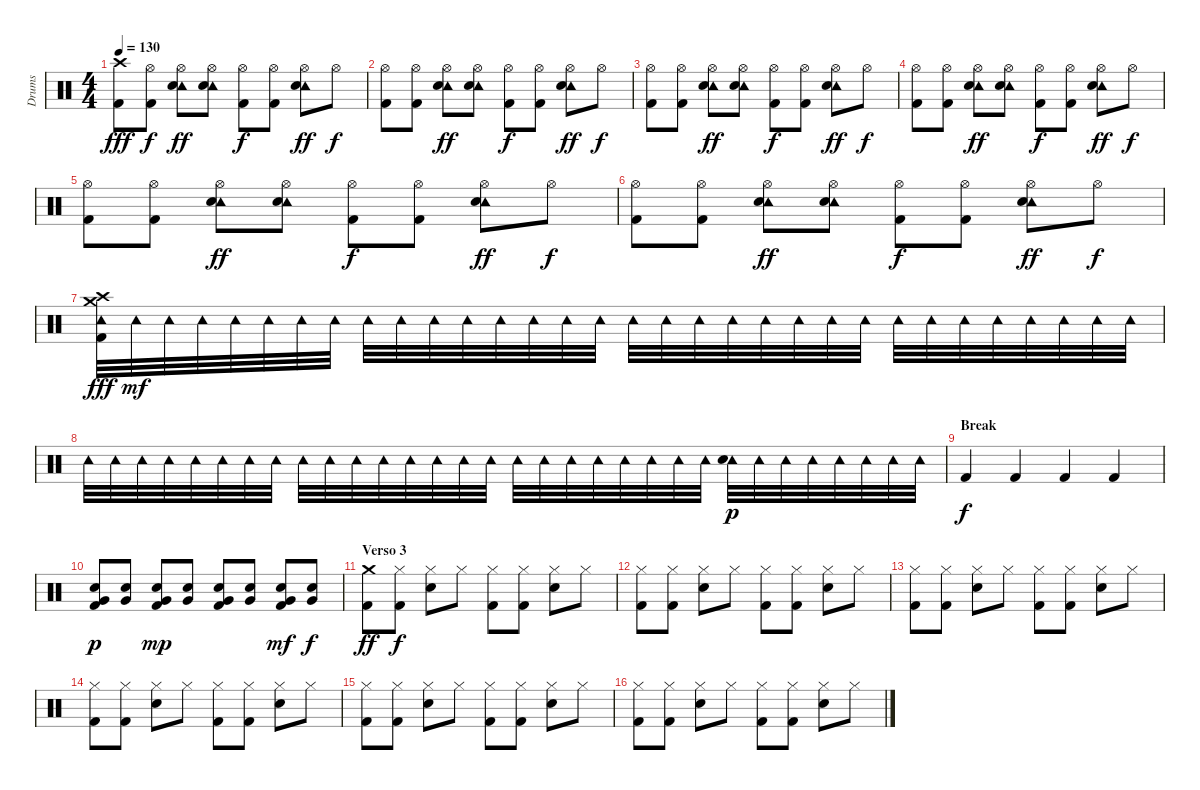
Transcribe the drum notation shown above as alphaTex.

\track ("Drums" "Drums") {instrument percussion}
\staff {score}
\articulation defaults
\ts (4 4)
\tempo 130
\clef neutral
\ks c
("Crash high (hit)" "Kick (hit) 2").8{dy fff} ("Hi-Hat (open)" "Kick (hit) 2").8{dy f} ("Hi-Hat (open)" "Tambourine (hit)" "Snare (hit) 2").8{dy ff} ("Hi-Hat (open)" "Tambourine (hit)" "Snare (hit) 2").8 ("Hi-Hat (open)" "Kick (hit) 2").8{dy f} ("Hi-Hat (open)" "Kick (hit) 2").8 ("Hi-Hat (open)" "Tambourine (hit)" "Snare (hit) 2").8{dy ff} "Hi-Hat (open)".8{dy f} |
("Hi-Hat (open)" "Kick (hit) 2").8 ("Hi-Hat (open)" "Kick (hit) 2").8 ("Hi-Hat (open)" "Tambourine (hit)" "Snare (hit) 2").8{dy ff} ("Hi-Hat (open)" "Tambourine (hit)" "Snare (hit) 2").8 ("Hi-Hat (open)" "Kick (hit) 2").8{dy f} ("Hi-Hat (open)" "Kick (hit) 2").8 ("Hi-Hat (open)" "Tambourine (hit)" "Snare (hit) 2").8{dy ff} "Hi-Hat (open)".8{dy f} |
("Hi-Hat (open)" "Kick (hit) 2").8 ("Hi-Hat (open)" "Kick (hit) 2").8 ("Hi-Hat (open)" "Tambourine (hit)" "Snare (hit) 2").8{dy ff} ("Hi-Hat (open)" "Tambourine (hit)" "Snare (hit) 2").8 ("Hi-Hat (open)" "Kick (hit) 2").8{dy f} ("Hi-Hat (open)" "Kick (hit) 2").8 ("Hi-Hat (open)" "Tambourine (hit)" "Snare (hit) 2").8{dy ff} "Hi-Hat (open)".8{dy f} |
("Hi-Hat (open)" "Kick (hit) 2").8 ("Hi-Hat (open)" "Kick (hit) 2").8 ("Hi-Hat (open)" "Tambourine (hit)" "Snare (hit) 2").8{dy ff} ("Hi-Hat (open)" "Tambourine (hit)" "Snare (hit) 2").8 ("Hi-Hat (open)" "Kick (hit) 2").8{dy f} ("Hi-Hat (open)" "Kick (hit) 2").8 ("Hi-Hat (open)" "Tambourine (hit)" "Snare (hit) 2").8{dy ff} "Hi-Hat (open)".8{dy f} |
("Hi-Hat (open)" "Kick (hit) 2").8 ("Hi-Hat (open)" "Kick (hit) 2").8 ("Hi-Hat (open)" "Tambourine (hit)" "Snare (hit) 2").8{dy ff} ("Hi-Hat (open)" "Tambourine (hit)" "Snare (hit) 2").8 ("Hi-Hat (open)" "Kick (hit) 2").8{dy f} ("Hi-Hat (open)" "Kick (hit) 2").8 ("Hi-Hat (open)" "Tambourine (hit)" "Snare (hit) 2").8{dy ff} "Hi-Hat (open)".8{dy f} |
("Hi-Hat (open)" "Kick (hit) 2").8 ("Hi-Hat (open)" "Kick (hit) 2").8 ("Hi-Hat (open)" "Tambourine (hit)" "Snare (hit) 2").8{dy ff} ("Hi-Hat (open)" "Tambourine (hit)" "Snare (hit) 2").8 ("Hi-Hat (open)" "Kick (hit) 2").8{dy f} ("Hi-Hat (open)" "Kick (hit) 2").8 ("Hi-Hat (open)" "Tambourine (hit)" "Snare (hit) 2").8{dy ff} "Hi-Hat (open)".8{dy f} |
("Crash medium (hit)" "Tambourine (hit)" "Crash high (hit)" "Kick (hit) 2").32{dy fff} "Tambourine (hit)".32{dy mf} "Tambourine (hit)".32 "Tambourine (hit)".32 "Tambourine (hit)".32 "Tambourine (hit)".32 "Tambourine (hit)".32 "Tambourine (hit)".32 "Tambourine (hit)".32{volume 8} "Tambourine (hit)".32 "Tambourine (hit)".32 "Tambourine (hit)".32 "Tambourine (hit)".32 "Tambourine (hit)".32 "Tambourine (hit)".32 "Tambourine (hit)".32 "Tambourine (hit)".32 "Tambourine (hit)".32 "Tambourine (hit)".32 "Tambourine (hit)".32 "Tambourine (hit)".32 "Tambourine (hit)".32 "Tambourine (hit)".32 "Tambourine (hit)".32 "Tambourine (hit)".32 "Tambourine (hit)".32 "Tambourine (hit)".32 "Tambourine (hit)".32 "Tambourine (hit)".32 "Tambourine (hit)".32 "Tambourine (hit)".32 "Tambourine (hit)".32 |
"Tambourine (hit)".32 "Tambourine (hit)".32 "Tambourine (hit)".32 "Tambourine (hit)".32 "Tambourine (hit)".32 "Tambourine (hit)".32 "Tambourine (hit)".32 "Tambourine (hit)".32 "Tambourine (hit)".32 "Tambourine (hit)".32 "Tambourine (hit)".32 "Tambourine (hit)".32 "Tambourine (hit)".32 "Tambourine (hit)".32 "Tambourine (hit)".32 "Tambourine (hit)".32 "Tambourine (hit)".32 "Tambourine (hit)".32 "Tambourine (hit)".32 "Tambourine (hit)".32 "Tambourine (hit)".32 "Tambourine (hit)".32 "Tambourine (hit)".32 "Tambourine (hit)".32 ("Tambourine (hit)" "Snare (hit) 2").32{dy p volume 11} "Tambourine (hit)".32 "Tambourine (hit)".32 "Tambourine (hit)".32 "Tambourine (hit)".32 "Tambourine (hit)".32 "Tambourine (hit)".32 "Tambourine (hit)".32 |
\section ("" "Break")
"Kick (hit) 2".4{dy f} "Kick (hit) 2".4 "Kick (hit) 2".4 "Kick (hit) 2".4 |
("Snare (hit) 2" "Very Low Tom (hit)" "Kick (hit) 2").8{dy p} ("Snare (hit) 2" "Very Low Tom (hit)").8 ("Snare (hit) 2" "Very Low Tom (hit)" "Kick (hit) 2").8{dy mp} ("Snare (hit) 2" "Very Low Tom (hit)").8 ("Snare (hit) 2" "Very Low Tom (hit)" "Kick (hit) 2").8 ("Snare (hit) 2" "Very Low Tom (hit)").8 ("Snare (hit) 2" "Very Low Tom (hit)" "Kick (hit) 2").8{dy mf} ("Snare (hit) 2" "Very Low Tom (hit)").8{dy f} |
\section ("" "Verso 3")
("Crash medium (hit)" "Kick (hit) 2").8{dy ff volume 13} ("Hi-Hat (closed)" "Kick (hit) 2").8{dy f} ("Hi-Hat (closed)" "Snare (hit) 2").8 "Hi-Hat (closed)".8 ("Hi-Hat (closed)" "Kick (hit) 2").8 ("Hi-Hat (closed)" "Kick (hit) 2").8 ("Hi-Hat (closed)" "Snare (hit) 2").8 "Hi-Hat (closed)".8 |
("Hi-Hat (closed)" "Kick (hit) 2").8 ("Hi-Hat (closed)" "Kick (hit) 2").8 ("Hi-Hat (closed)" "Snare (hit) 2").8 "Hi-Hat (closed)".8 ("Hi-Hat (closed)" "Kick (hit) 2").8 ("Hi-Hat (closed)" "Kick (hit) 2").8 ("Hi-Hat (closed)" "Snare (hit) 2").8 "Hi-Hat (closed)".8 |
("Hi-Hat (closed)" "Kick (hit) 2").8 ("Hi-Hat (closed)" "Kick (hit) 2").8 ("Hi-Hat (closed)" "Snare (hit) 2").8 "Hi-Hat (closed)".8 ("Hi-Hat (closed)" "Kick (hit) 2").8 ("Hi-Hat (closed)" "Kick (hit) 2").8 ("Hi-Hat (closed)" "Snare (hit) 2").8 "Hi-Hat (closed)".8 |
("Hi-Hat (closed)" "Kick (hit) 2").8 ("Hi-Hat (closed)" "Kick (hit) 2").8 ("Hi-Hat (closed)" "Snare (hit) 2").8 "Hi-Hat (closed)".8 ("Hi-Hat (closed)" "Kick (hit) 2").8 ("Hi-Hat (closed)" "Kick (hit) 2").8 ("Hi-Hat (closed)" "Snare (hit) 2").8 "Hi-Hat (closed)".8 |
("Hi-Hat (closed)" "Kick (hit) 2").8 ("Hi-Hat (closed)" "Kick (hit) 2").8 ("Hi-Hat (closed)" "Snare (hit) 2").8 "Hi-Hat (closed)".8 ("Hi-Hat (closed)" "Kick (hit) 2").8 ("Hi-Hat (closed)" "Kick (hit) 2").8 ("Hi-Hat (closed)" "Snare (hit) 2").8 "Hi-Hat (closed)".8 |
("Hi-Hat (closed)" "Kick (hit) 2").8 ("Hi-Hat (closed)" "Kick (hit) 2").8 ("Hi-Hat (closed)" "Snare (hit) 2").8 "Hi-Hat (closed)".8 ("Hi-Hat (closed)" "Kick (hit) 2").8 ("Hi-Hat (closed)" "Kick (hit) 2").8 ("Hi-Hat (closed)" "Snare (hit) 2").8 "Hi-Hat (closed)".8
